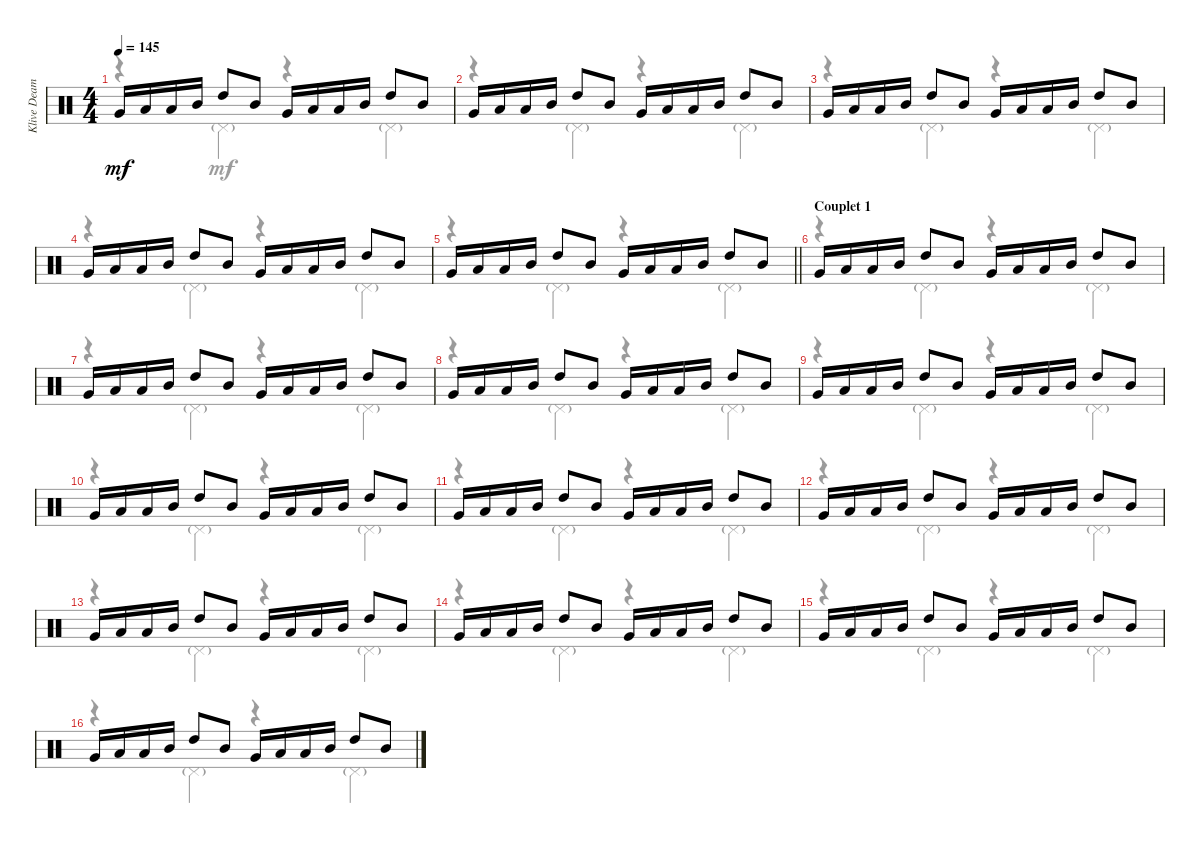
\track ("Klive Deamer" "Klive Deam") {instrument percussion}
\staff {score}
\articulation defaults
\voice
\ts (4 4)
\tempo 145
\clef neutral
\ks c "Very Low Tom (hit)".16{dy mf} "Low Tom (hit)".16 "Low Tom (hit)".16 "Mid Tom (hit)".16 "High Tom (hit)".8 "Mid Tom (hit)".8 "Very Low Tom (hit)".16 "Low Tom (hit)".16 "Low Tom (hit)".16 "Mid Tom (hit)".16 "High Tom (hit)".8 "Mid Tom (hit)".8
|
"Very Low Tom (hit)".16 "Low Tom (hit)".16 "Low Tom (hit)".16 "Mid Tom (hit)".16 "High Tom (hit)".8 "Mid Tom (hit)".8 "Very Low Tom (hit)".16 "Low Tom (hit)".16 "Low Tom (hit)".16 "Mid Tom (hit)".16 "High Tom (hit)".8 "Mid Tom (hit)".8 |
"Very Low Tom (hit)".16 "Low Tom (hit)".16 "Low Tom (hit)".16 "Mid Tom (hit)".16 "High Tom (hit)".8 "Mid Tom (hit)".8 "Very Low Tom (hit)".16 "Low Tom (hit)".16 "Low Tom (hit)".16 "Mid Tom (hit)".16 "High Tom (hit)".8 "Mid Tom (hit)".8 |
"Very Low Tom (hit)".16 "Low Tom (hit)".16 "Low Tom (hit)".16 "Mid Tom (hit)".16 "High Tom (hit)".8 "Mid Tom (hit)".8 "Very Low Tom (hit)".16 "Low Tom (hit)".16 "Low Tom (hit)".16 "Mid Tom (hit)".16 "High Tom (hit)".8 "Mid Tom (hit)".8 |
\barLineRight lightlight "Very Low Tom (hit)".16 "Low Tom (hit)".16 "Low Tom (hit)".16 "Mid Tom (hit)".16 "High Tom (hit)".8 "Mid Tom (hit)".8 "Very Low Tom (hit)".16 "Low Tom (hit)".16 "Low Tom (hit)".16 "Mid Tom (hit)".16 "High Tom (hit)".8 "Mid Tom (hit)".8
|
\section ("" "Couplet 1")
"Very Low Tom (hit)".16 "Low Tom (hit)".16 "Low Tom (hit)".16 "Mid Tom (hit)".16 "High Tom (hit)".8 "Mid Tom (hit)".8 "Very Low Tom (hit)".16 "Low Tom (hit)".16 "Low Tom (hit)".16 "Mid Tom (hit)".16 "High Tom (hit)".8 "Mid Tom (hit)".8 |
"Very Low Tom (hit)".16 "Low Tom (hit)".16 "Low Tom (hit)".16 "Mid Tom (hit)".16 "High Tom (hit)".8 "Mid Tom (hit)".8 "Very Low Tom (hit)".16 "Low Tom (hit)".16 "Low Tom (hit)".16 "Mid Tom (hit)".16 "High Tom (hit)".8 "Mid Tom (hit)".8 |
"Very Low Tom (hit)".16 "Low Tom (hit)".16 "Low Tom (hit)".16 "Mid Tom (hit)".16 "High Tom (hit)".8 "Mid Tom (hit)".8 "Very Low Tom (hit)".16 "Low Tom (hit)".16 "Low Tom (hit)".16 "Mid Tom (hit)".16 "High Tom (hit)".8 "Mid Tom (hit)".8 |
"Very Low Tom (hit)".16 "Low Tom (hit)".16 "Low Tom (hit)".16 "Mid Tom (hit)".16 "High Tom (hit)".8 "Mid Tom (hit)".8 "Very Low Tom (hit)".16 "Low Tom (hit)".16 "Low Tom (hit)".16 "Mid Tom (hit)".16 "High Tom (hit)".8 "Mid Tom (hit)".8 |
"Very Low Tom (hit)".16 "Low Tom (hit)".16 "Low Tom (hit)".16 "Mid Tom (hit)".16 "High Tom (hit)".8 "Mid Tom (hit)".8 "Very Low Tom (hit)".16 "Low Tom (hit)".16 "Low Tom (hit)".16 "Mid Tom (hit)".16 "High Tom (hit)".8 "Mid Tom (hit)".8 |
"Very Low Tom (hit)".16 "Low Tom (hit)".16 "Low Tom (hit)".16 "Mid Tom (hit)".16 "High Tom (hit)".8 "Mid Tom (hit)".8 "Very Low Tom (hit)".16 "Low Tom (hit)".16 "Low Tom (hit)".16 "Mid Tom (hit)".16 "High Tom (hit)".8 "Mid Tom (hit)".8 |
"Very Low Tom (hit)".16 "Low Tom (hit)".16 "Low Tom (hit)".16 "Mid Tom (hit)".16 "High Tom (hit)".8 "Mid Tom (hit)".8 "Very Low Tom (hit)".16 "Low Tom (hit)".16 "Low Tom (hit)".16 "Mid Tom (hit)".16 "High Tom (hit)".8 "Mid Tom (hit)".8 |
"Very Low Tom (hit)".16 "Low Tom (hit)".16 "Low Tom (hit)".16 "Mid Tom (hit)".16 "High Tom (hit)".8 "Mid Tom (hit)".8 "Very Low Tom (hit)".16 "Low Tom (hit)".16 "Low Tom (hit)".16 "Mid Tom (hit)".16 "High Tom (hit)".8 "Mid Tom (hit)".8 |
"Very Low Tom (hit)".16 "Low Tom (hit)".16 "Low Tom (hit)".16 "Mid Tom (hit)".16 "High Tom (hit)".8 "Mid Tom (hit)".8 "Very Low Tom (hit)".16 "Low Tom (hit)".16 "Low Tom (hit)".16 "Mid Tom (hit)".16 "High Tom (hit)".8 "Mid Tom (hit)".8 |
"Very Low Tom (hit)".16 "Low Tom (hit)".16 "Low Tom (hit)".16 "Mid Tom (hit)".16 "High Tom (hit)".8 "Mid Tom (hit)".8 "Very Low Tom (hit)".16 "Low Tom (hit)".16 "Low Tom (hit)".16 "Mid Tom (hit)".16 "High Tom (hit)".8 "Mid Tom (hit)".8 |
"Very Low Tom (hit)".16 "Low Tom (hit)".16 "Low Tom (hit)".16 "Mid Tom (hit)".16 "High Tom (hit)".8 "Mid Tom (hit)".8 "Very Low Tom (hit)".16 "Low Tom (hit)".16 "Low Tom (hit)".16 "Mid Tom (hit)".16 "High Tom (hit)".8 "Mid Tom (hit)".8
\voice
\clef neutral
\ottava regular
\simile none
\ks c
r.4{dy mf} "Pedal Hi-Hat (hit)"{g}.4 r.4 "Pedal Hi-Hat (hit)"{g}.4 |
r.4 "Pedal Hi-Hat (hit)"{g}.4 r.4 "Pedal Hi-Hat (hit)"{g}.4 |
r.4 "Pedal Hi-Hat (hit)"{g}.4 r.4 "Pedal Hi-Hat (hit)"{g}.4 |
r.4 "Pedal Hi-Hat (hit)"{g}.4 r.4 "Pedal Hi-Hat (hit)"{g}.4 |
\barLineRight lightlight
r.4 "Pedal Hi-Hat (hit)"{g}.4 r.4 "Pedal Hi-Hat (hit)"{g}.4 |
r.4 "Pedal Hi-Hat (hit)"{g}.4 r.4 "Pedal Hi-Hat (hit)"{g}.4 |
r.4 "Pedal Hi-Hat (hit)"{g}.4 r.4 "Pedal Hi-Hat (hit)"{g}.4 |
r.4 "Pedal Hi-Hat (hit)"{g}.4 r.4 "Pedal Hi-Hat (hit)"{g}.4 |
r.4 "Pedal Hi-Hat (hit)"{g}.4 r.4 "Pedal Hi-Hat (hit)"{g}.4 |
r.4 "Pedal Hi-Hat (hit)"{g}.4 r.4 "Pedal Hi-Hat (hit)"{g}.4 |
r.4 "Pedal Hi-Hat (hit)"{g}.4 r.4 "Pedal Hi-Hat (hit)"{g}.4 |
r.4 "Pedal Hi-Hat (hit)"{g}.4 r.4 "Pedal Hi-Hat (hit)"{g}.4 |
r.4 "Pedal Hi-Hat (hit)"{g}.4 r.4 "Pedal Hi-Hat (hit)"{g}.4 |
r.4 "Pedal Hi-Hat (hit)"{g}.4 r.4 "Pedal Hi-Hat (hit)"{g}.4 |
r.4 "Pedal Hi-Hat (hit)"{g}.4 r.4 "Pedal Hi-Hat (hit)"{g}.4 |
r.4 "Pedal Hi-Hat (hit)"{g}.4 r.4 "Pedal Hi-Hat (hit)"{g}.4
